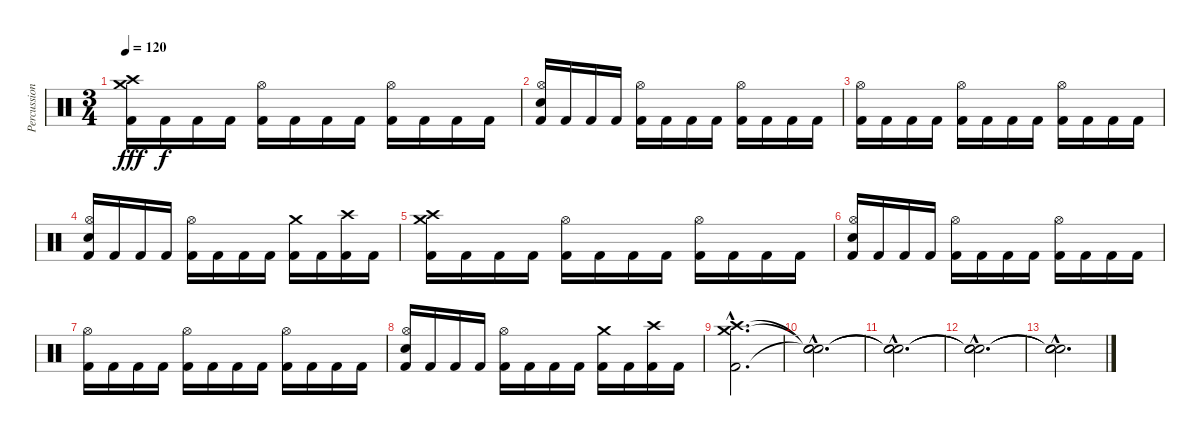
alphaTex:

\track ("Percussion" "Percussion") {instrument percussion}
\staff {score}
\articulation defaults
\ts (3 4)
\tempo 120
\clef neutral
\ks c
("Crash high (hit)" "Crash medium (hit)" "Kick (hit) 2").16{dy fff} "Kick (hit) 2".16{dy f} "Kick (hit) 2".16 "Kick (hit) 2".16 ("Hi-Hat (open)" "Kick (hit) 2").16 "Kick (hit) 2".16 "Kick (hit) 2".16 "Kick (hit) 2".16 ("Hi-Hat (open)" "Kick (hit) 2").16 "Kick (hit) 2".16 "Kick (hit) 2".16 "Kick (hit) 2".16 |
("Hi-Hat (open)" "Electric Snare (hit)" "Kick (hit) 2").16 "Kick (hit) 2".16 "Kick (hit) 2".16 "Kick (hit) 2".16 ("Hi-Hat (open)" "Kick (hit) 2").16 "Kick (hit) 2".16 "Kick (hit) 2".16 "Kick (hit) 2".16 ("Hi-Hat (open)" "Kick (hit) 2").16 "Kick (hit) 2".16 "Kick (hit) 2".16 "Kick (hit) 2".16 |
("Hi-Hat (open)" "Kick (hit) 2").16 "Kick (hit) 2".16 "Kick (hit) 2".16 "Kick (hit) 2".16 ("Hi-Hat (open)" "Kick (hit) 2").16 "Kick (hit) 2".16 "Kick (hit) 2".16 "Kick (hit) 2".16 ("Hi-Hat (open)" "Kick (hit) 2").16 "Kick (hit) 2".16 "Kick (hit) 2".16 "Kick (hit) 2".16 |
("Hi-Hat (open)" "Electric Snare (hit)" "Kick (hit) 2").16 "Kick (hit) 2".16 "Kick (hit) 2".16 "Kick (hit) 2".16 ("Hi-Hat (open)" "Kick (hit) 2").16 "Kick (hit) 2".16 "Kick (hit) 2".16 "Kick (hit) 2".16 ("Crash medium (hit)" "Kick (hit) 2").16 "Kick (hit) 2".16 ("Crash high (hit)" "Kick (hit) 2").16 "Kick (hit) 2".16 |
("Crash medium (hit)" "Crash high (hit)" "Kick (hit) 2").16 "Kick (hit) 2".16 "Kick (hit) 2".16 "Kick (hit) 2".16 ("Hi-Hat (open)" "Kick (hit) 2").16 "Kick (hit) 2".16 "Kick (hit) 2".16 "Kick (hit) 2".16 ("Hi-Hat (open)" "Kick (hit) 2").16 "Kick (hit) 2".16 "Kick (hit) 2".16 "Kick (hit) 2".16 |
("Hi-Hat (open)" "Electric Snare (hit)" "Kick (hit) 2").16 "Kick (hit) 2".16 "Kick (hit) 2".16 "Kick (hit) 2".16 ("Hi-Hat (open)" "Kick (hit) 2").16 "Kick (hit) 2".16 "Kick (hit) 2".16 "Kick (hit) 2".16 ("Hi-Hat (open)" "Kick (hit) 2").16 "Kick (hit) 2".16 "Kick (hit) 2".16 "Kick (hit) 2".16 |
("Hi-Hat (open)" "Kick (hit) 2").16 "Kick (hit) 2".16 "Kick (hit) 2".16 "Kick (hit) 2".16 ("Hi-Hat (open)" "Kick (hit) 2").16 "Kick (hit) 2".16 "Kick (hit) 2".16 "Kick (hit) 2".16 ("Hi-Hat (open)" "Kick (hit) 2").16 "Kick (hit) 2".16 "Kick (hit) 2".16 "Kick (hit) 2".16 |
("Hi-Hat (open)" "Electric Snare (hit)" "Kick (hit) 2").16 "Kick (hit) 2".16 "Kick (hit) 2".16 "Kick (hit) 2".16 ("Hi-Hat (open)" "Kick (hit) 2").16 "Kick (hit) 2".16 "Kick (hit) 2".16 "Kick (hit) 2".16 ("Crash medium (hit)" "Kick (hit) 2").16 "Kick (hit) 2".16 ("Crash high (hit)" "Kick (hit) 2").16 "Kick (hit) 2".16 |
("Crash high (hit)"{hac} "Crash medium (hit)"{hac} "Kick (hit) 2"{hac}).2{d} |
("Snare (hit)"{hac t} "Snare (hit)"{hac t} "Snare (hit)"{hac t}).2{d} |
("Snare (hit)"{hac t} "Snare (hit)"{hac t} "Snare (hit)"{hac t}).2{d} |
("Snare (hit)"{hac t} "Snare (hit)"{hac t} "Snare (hit)"{hac t}).2{d} |
("Snare (hit)"{hac t} "Snare (hit)"{hac t} "Snare (hit)"{hac t}).2{d}
